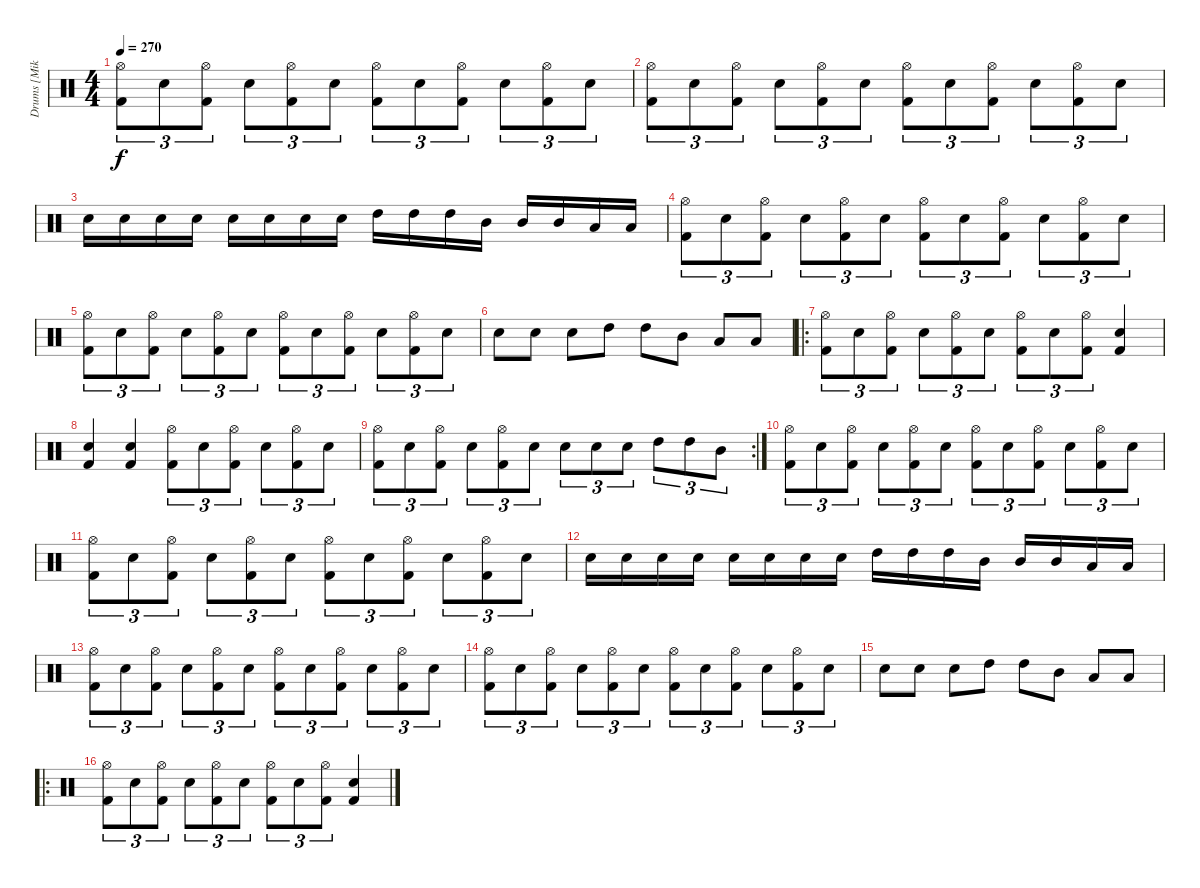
\track ("Drums [Mike Smith]" "Drums [Mik") {instrument percussion}
\staff {score}
\articulation defaults
\ts (4 4)
\tempo 270
\clef neutral
\ks c
("Hi-Hat (open)" "Kick (hit) 2").8{tu (3 2) dy f} "Electric Snare (hit)".8{tu (3 2)} ("Hi-Hat (open)" "Kick (hit) 2").8{tu (3 2)} "Electric Snare (hit)".8{tu (3 2)} ("Hi-Hat (open)" "Kick (hit) 2").8{tu (3 2)} "Electric Snare (hit)".8{tu (3 2)} ("Hi-Hat (open)" "Kick (hit) 2").8{tu (3 2)} "Electric Snare (hit)".8{tu (3 2)} ("Hi-Hat (open)" "Kick (hit) 2").8{tu (3 2)} "Electric Snare (hit)".8{tu (3 2)} ("Hi-Hat (open)" "Kick (hit) 2").8{tu (3 2)} "Electric Snare (hit)".8{tu (3 2)} |
("Hi-Hat (open)" "Kick (hit) 2").8{tu (3 2)} "Electric Snare (hit)".8{tu (3 2)} ("Hi-Hat (open)" "Kick (hit) 2").8{tu (3 2)} "Electric Snare (hit)".8{tu (3 2)} ("Hi-Hat (open)" "Kick (hit) 2").8{tu (3 2)} "Electric Snare (hit)".8{tu (3 2)} ("Hi-Hat (open)" "Kick (hit) 2").8{tu (3 2)} "Electric Snare (hit)".8{tu (3 2)} ("Hi-Hat (open)" "Kick (hit) 2").8{tu (3 2)} "Electric Snare (hit)".8{tu (3 2)} ("Hi-Hat (open)" "Kick (hit) 2").8{tu (3 2)} "Electric Snare (hit)".8{tu (3 2)} |
"Electric Snare (hit)".16 "Electric Snare (hit)".16 "Electric Snare (hit)".16 "Electric Snare (hit)".16 "Electric Snare (hit)".16 "Electric Snare (hit)".16 "Electric Snare (hit)".16 "Electric Snare (hit)".16 "High Tom (hit)".16 "High Tom (hit)".16 "High Tom (hit)".16 "Mid Tom (hit)".16 "Mid Tom (hit)".16 "Mid Tom (hit)".16 "Low Tom (hit)".16 "Low Tom (hit)".16 |
("Hi-Hat (open)" "Kick (hit) 2").8{tu (3 2)} "Electric Snare (hit)".8{tu (3 2)} ("Hi-Hat (open)" "Kick (hit) 2").8{tu (3 2)} "Electric Snare (hit)".8{tu (3 2)} ("Hi-Hat (open)" "Kick (hit) 2").8{tu (3 2)} "Electric Snare (hit)".8{tu (3 2)} ("Hi-Hat (open)" "Kick (hit) 2").8{tu (3 2)} "Electric Snare (hit)".8{tu (3 2)} ("Hi-Hat (open)" "Kick (hit) 2").8{tu (3 2)} "Electric Snare (hit)".8{tu (3 2)} ("Hi-Hat (open)" "Kick (hit) 2").8{tu (3 2)} "Electric Snare (hit)".8{tu (3 2)} |
("Hi-Hat (open)" "Kick (hit) 2").8{tu (3 2)} "Electric Snare (hit)".8{tu (3 2)} ("Hi-Hat (open)" "Kick (hit) 2").8{tu (3 2)} "Electric Snare (hit)".8{tu (3 2)} ("Hi-Hat (open)" "Kick (hit) 2").8{tu (3 2)} "Electric Snare (hit)".8{tu (3 2)} ("Hi-Hat (open)" "Kick (hit) 2").8{tu (3 2)} "Electric Snare (hit)".8{tu (3 2)} ("Hi-Hat (open)" "Kick (hit) 2").8{tu (3 2)} "Electric Snare (hit)".8{tu (3 2)} ("Hi-Hat (open)" "Kick (hit) 2").8{tu (3 2)} "Electric Snare (hit)".8{tu (3 2)} |
"Electric Snare (hit)".8 "Electric Snare (hit)".8 "Electric Snare (hit)".8 "High Tom (hit)".8 "High Tom (hit)".8 "Mid Tom (hit)".8 "Low Tom (hit)".8 "Low Tom (hit)".8 |
\ro
("Hi-Hat (open)" "Kick (hit) 2").8{tu (3 2)} "Electric Snare (hit)".8{tu (3 2)} ("Hi-Hat (open)" "Kick (hit) 2").8{tu (3 2)} "Electric Snare (hit)".8{tu (3 2)} ("Hi-Hat (open)" "Kick (hit) 2").8{tu (3 2)} "Electric Snare (hit)".8{tu (3 2)} ("Hi-Hat (open)" "Kick (hit) 2").8{tu (3 2)} "Electric Snare (hit)".8{tu (3 2)} ("Hi-Hat (open)" "Kick (hit) 2").8{tu (3 2)} ("Electric Snare (hit)" "Kick (hit) 2").4 |
("Electric Snare (hit)" "Kick (hit) 2").4 ("Electric Snare (hit)" "Kick (hit) 2").4 ("Hi-Hat (open)" "Kick (hit) 2").8{tu (3 2)} "Electric Snare (hit)".8{tu (3 2)} ("Hi-Hat (open)" "Kick (hit) 2").8{tu (3 2)} "Electric Snare (hit)".8{tu (3 2)} ("Hi-Hat (open)" "Kick (hit) 2").8{tu (3 2)} "Electric Snare (hit)".8{tu (3 2)} |
\rc 2
("Hi-Hat (open)" "Kick (hit) 2").8{tu (3 2)} "Electric Snare (hit)".8{tu (3 2)} ("Hi-Hat (open)" "Kick (hit) 2").8{tu (3 2)} "Electric Snare (hit)".8{tu (3 2)} ("Hi-Hat (open)" "Kick (hit) 2").8{tu (3 2)} "Electric Snare (hit)".8{tu (3 2)} "Electric Snare (hit)".8{tu (3 2)} "Electric Snare (hit)".8{tu (3 2)} "Electric Snare (hit)".8{tu (3 2)} "High Tom (hit)".8{tu (3 2)} "High Tom (hit)".8{tu (3 2)} "Mid Tom (hit)".8{tu (3 2)} |
("Hi-Hat (open)" "Kick (hit) 2").8{tu (3 2)} "Electric Snare (hit)".8{tu (3 2)} ("Hi-Hat (open)" "Kick (hit) 2").8{tu (3 2)} "Electric Snare (hit)".8{tu (3 2)} ("Hi-Hat (open)" "Kick (hit) 2").8{tu (3 2)} "Electric Snare (hit)".8{tu (3 2)} ("Hi-Hat (open)" "Kick (hit) 2").8{tu (3 2)} "Electric Snare (hit)".8{tu (3 2)} ("Hi-Hat (open)" "Kick (hit) 2").8{tu (3 2)} "Electric Snare (hit)".8{tu (3 2)} ("Hi-Hat (open)" "Kick (hit) 2").8{tu (3 2)} "Electric Snare (hit)".8{tu (3 2)} |
("Hi-Hat (open)" "Kick (hit) 2").8{tu (3 2)} "Electric Snare (hit)".8{tu (3 2)} ("Hi-Hat (open)" "Kick (hit) 2").8{tu (3 2)} "Electric Snare (hit)".8{tu (3 2)} ("Hi-Hat (open)" "Kick (hit) 2").8{tu (3 2)} "Electric Snare (hit)".8{tu (3 2)} ("Hi-Hat (open)" "Kick (hit) 2").8{tu (3 2)} "Electric Snare (hit)".8{tu (3 2)} ("Hi-Hat (open)" "Kick (hit) 2").8{tu (3 2)} "Electric Snare (hit)".8{tu (3 2)} ("Hi-Hat (open)" "Kick (hit) 2").8{tu (3 2)} "Electric Snare (hit)".8{tu (3 2)} |
"Electric Snare (hit)".16 "Electric Snare (hit)".16 "Electric Snare (hit)".16 "Electric Snare (hit)".16 "Electric Snare (hit)".16 "Electric Snare (hit)".16 "Electric Snare (hit)".16 "Electric Snare (hit)".16 "High Tom (hit)".16 "High Tom (hit)".16 "High Tom (hit)".16 "Mid Tom (hit)".16 "Mid Tom (hit)".16 "Mid Tom (hit)".16 "Low Tom (hit)".16 "Low Tom (hit)".16 |
("Hi-Hat (open)" "Kick (hit) 2").8{tu (3 2)} "Electric Snare (hit)".8{tu (3 2)} ("Hi-Hat (open)" "Kick (hit) 2").8{tu (3 2)} "Electric Snare (hit)".8{tu (3 2)} ("Hi-Hat (open)" "Kick (hit) 2").8{tu (3 2)} "Electric Snare (hit)".8{tu (3 2)} ("Hi-Hat (open)" "Kick (hit) 2").8{tu (3 2)} "Electric Snare (hit)".8{tu (3 2)} ("Hi-Hat (open)" "Kick (hit) 2").8{tu (3 2)} "Electric Snare (hit)".8{tu (3 2)} ("Hi-Hat (open)" "Kick (hit) 2").8{tu (3 2)} "Electric Snare (hit)".8{tu (3 2)} |
("Hi-Hat (open)" "Kick (hit) 2").8{tu (3 2)} "Electric Snare (hit)".8{tu (3 2)} ("Hi-Hat (open)" "Kick (hit) 2").8{tu (3 2)} "Electric Snare (hit)".8{tu (3 2)} ("Hi-Hat (open)" "Kick (hit) 2").8{tu (3 2)} "Electric Snare (hit)".8{tu (3 2)} ("Hi-Hat (open)" "Kick (hit) 2").8{tu (3 2)} "Electric Snare (hit)".8{tu (3 2)} ("Hi-Hat (open)" "Kick (hit) 2").8{tu (3 2)} "Electric Snare (hit)".8{tu (3 2)} ("Hi-Hat (open)" "Kick (hit) 2").8{tu (3 2)} "Electric Snare (hit)".8{tu (3 2)} |
"Electric Snare (hit)".8 "Electric Snare (hit)".8 "Electric Snare (hit)".8 "High Tom (hit)".8 "High Tom (hit)".8 "Mid Tom (hit)".8 "Low Tom (hit)".8 "Low Tom (hit)".8 |
\ro
("Hi-Hat (open)" "Kick (hit) 2").8{tu (3 2)} "Electric Snare (hit)".8{tu (3 2)} ("Hi-Hat (open)" "Kick (hit) 2").8{tu (3 2)} "Electric Snare (hit)".8{tu (3 2)} ("Hi-Hat (open)" "Kick (hit) 2").8{tu (3 2)} "Electric Snare (hit)".8{tu (3 2)} ("Hi-Hat (open)" "Kick (hit) 2").8{tu (3 2)} "Electric Snare (hit)".8{tu (3 2)} ("Hi-Hat (open)" "Kick (hit) 2").8{tu (3 2)} ("Electric Snare (hit)" "Kick (hit) 2").4
